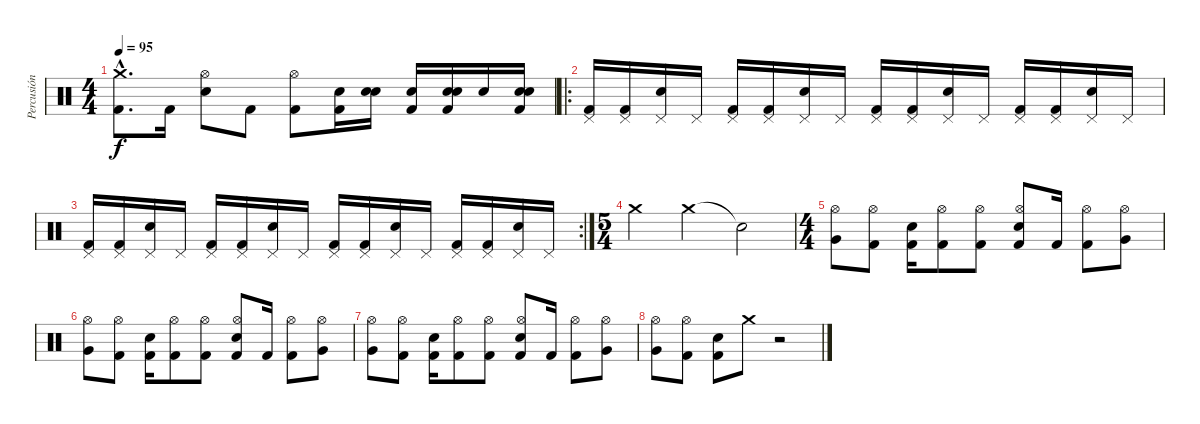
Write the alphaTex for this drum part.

\track ("Percusión" "Percusión") {instrument percussion}
\staff {score}
\articulation defaults
\ts (4 4)
\tempo 95
\clef neutral
\ks c
("Crash medium (hit)"{hac} "Kick (hit) 2"{hac}).8{d dy f} "Kick (hit) 2".16 ("Hi-Hat (open)" "Electric Snare (hit)").8 "Kick (hit) 2".8 ("Hi-Hat (open)" "Kick (hit) 2").8 ("Kick (hit) 2" "Electric Snare (hit)").16 ("Electric Snare (hit)" "Snare (hit)").16 ("Kick (hit) 2" "Electric Snare (hit)").16 ("Kick (hit) 2" "Electric Snare (hit)" "Snare (hit)").16 "Electric Snare (hit)".16 ("Kick (hit) 2" "Electric Snare (hit)" "Snare (hit)").16 |
\ro
("Pedal Hi-Hat (hit)" "Kick (hit) 2").16 ("Pedal Hi-Hat (hit)" "Kick (hit) 2").16 ("Pedal Hi-Hat (hit)" "Electric Snare (hit)").16 "Pedal Hi-Hat (hit)".16 ("Pedal Hi-Hat (hit)" "Kick (hit) 2").16 ("Pedal Hi-Hat (hit)" "Kick (hit) 2").16 ("Pedal Hi-Hat (hit)" "Electric Snare (hit)").16 "Pedal Hi-Hat (hit)".16 ("Pedal Hi-Hat (hit)" "Kick (hit) 2").16 ("Pedal Hi-Hat (hit)" "Kick (hit) 2").16 ("Pedal Hi-Hat (hit)" "Electric Snare (hit)").16 "Pedal Hi-Hat (hit)".16 ("Pedal Hi-Hat (hit)" "Kick (hit) 2").16 ("Pedal Hi-Hat (hit)" "Kick (hit) 2").16 ("Pedal Hi-Hat (hit)" "Electric Snare (hit)").16 "Pedal Hi-Hat (hit)".16 |
\rc 2
("Pedal Hi-Hat (hit)" "Kick (hit) 2").16 ("Pedal Hi-Hat (hit)" "Kick (hit) 2").16 ("Pedal Hi-Hat (hit)" "Electric Snare (hit)").16 "Pedal Hi-Hat (hit)".16 ("Pedal Hi-Hat (hit)" "Kick (hit) 2").16 ("Pedal Hi-Hat (hit)" "Kick (hit) 2").16 ("Pedal Hi-Hat (hit)" "Electric Snare (hit)").16 "Pedal Hi-Hat (hit)".16 ("Pedal Hi-Hat (hit)" "Kick (hit) 2").16 ("Pedal Hi-Hat (hit)" "Kick (hit) 2").16 ("Pedal Hi-Hat (hit)" "Electric Snare (hit)").16 "Pedal Hi-Hat (hit)".16 ("Pedal Hi-Hat (hit)" "Kick (hit) 2").16 ("Pedal Hi-Hat (hit)" "Kick (hit) 2").16 ("Pedal Hi-Hat (hit)" "Electric Snare (hit)").16 "Pedal Hi-Hat (hit)".16 |
\ts (5 4)
"Crash medium (hit)".2 "Crash medium (hit)".2 "Snare (hit)"{t}.2 |
\ts (4 4)
("Very Low Tom (hit)" "Hi-Hat (open)").8 ("Kick (hit) 2" "Hi-Hat (open)").8 ("Electric Snare (hit)" "Kick (hit) 2").16 ("Kick (hit) 2" "Hi-Hat (open)").8 ("Kick (hit) 2" "Hi-Hat (open)").8 ("Electric Snare (hit)" "Kick (hit) 2" "Hi-Hat (open)").8 "Kick (hit) 2".16 ("Kick (hit) 2" "Hi-Hat (open)").8 ("Very Low Tom (hit)" "Hi-Hat (open)").8 |
("Very Low Tom (hit)" "Hi-Hat (open)").8 ("Kick (hit) 2" "Hi-Hat (open)").8 ("Electric Snare (hit)" "Kick (hit) 2").16 ("Kick (hit) 2" "Hi-Hat (open)").8 ("Kick (hit) 2" "Hi-Hat (open)").8 ("Electric Snare (hit)" "Kick (hit) 2" "Hi-Hat (open)").8 "Kick (hit) 2".16 ("Kick (hit) 2" "Hi-Hat (open)").8 ("Very Low Tom (hit)" "Hi-Hat (open)").8 |
("Very Low Tom (hit)" "Hi-Hat (open)").8 ("Kick (hit) 2" "Hi-Hat (open)").8 ("Electric Snare (hit)" "Kick (hit) 2").16 ("Kick (hit) 2" "Hi-Hat (open)").8 ("Kick (hit) 2" "Hi-Hat (open)").8 ("Electric Snare (hit)" "Kick (hit) 2" "Hi-Hat (open)").8 "Kick (hit) 2".16 ("Kick (hit) 2" "Hi-Hat (open)").8 ("Very Low Tom (hit)" "Hi-Hat (open)").8 |
("Very Low Tom (hit)" "Hi-Hat (open)").8 ("Kick (hit) 2" "Hi-Hat (open)").8 ("Electric Snare (hit)" "Kick (hit) 2").8 "Crash medium (hit)".8 r.2
